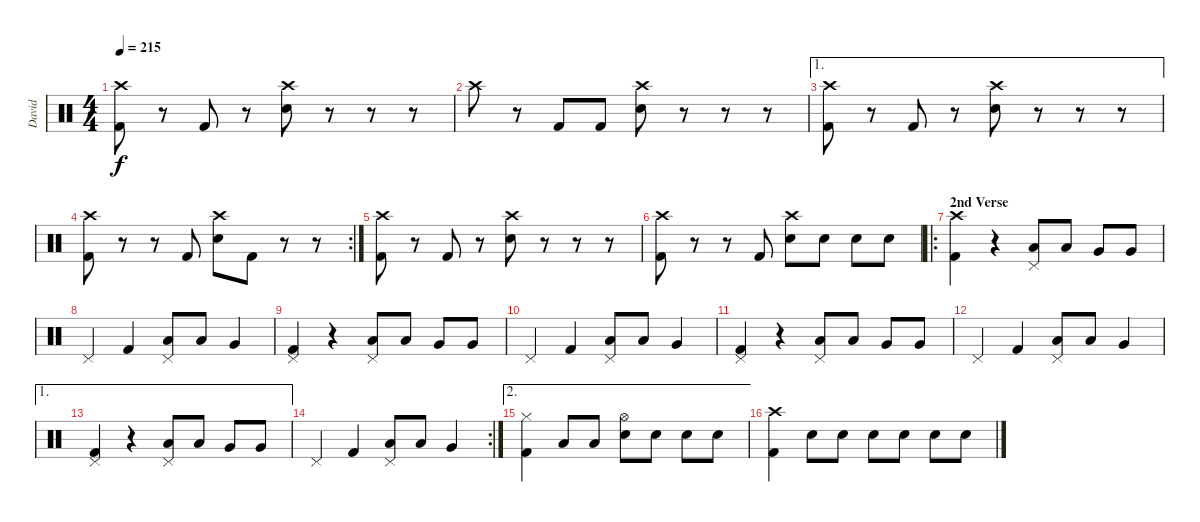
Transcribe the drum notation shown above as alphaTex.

\track ("David" "David") {instrument percussion}
\staff {score}
\articulation defaults
\ts (4 4)
\tempo 215
\clef neutral
\ks c
("Crash high (hit)" "Kick (hit) 2").8{dy f} r.8 "Kick (hit) 2".8 r.8 ("Crash high (hit)" "Electric Snare (hit)").8 r.8 r.8 r.8 |
"Crash high (hit)".8 r.8 "Kick (hit) 2".8 "Kick (hit) 2".8 ("Crash high (hit)" "Electric Snare (hit)").8 r.8 r.8 r.8 |
\ae 1
("Crash high (hit)" "Kick (hit) 2").8 r.8 "Kick (hit) 2".8 r.8 ("Crash high (hit)" "Electric Snare (hit)").8 r.8 r.8 r.8 |
\rc 2
("Crash high (hit)" "Kick (hit) 2").8 r.8 r.8 "Kick (hit) 2".8 ("Crash high (hit)" "Electric Snare (hit)").8 "Kick (hit) 2".8 r.8 r.8 |
("Crash high (hit)" "Kick (hit) 2").8 r.8 "Kick (hit) 2".8 r.8 ("Crash high (hit)" "Electric Snare (hit)").8 r.8 r.8 r.8 |
("Crash high (hit)" "Kick (hit) 2").8 r.8 r.8 "Kick (hit) 2".8 ("Crash high (hit)" "Electric Snare (hit)").8 "Electric Snare (hit)".8 "Electric Snare (hit)".8 "Electric Snare (hit)".8 |
\ro
\section ("" "2nd Verse")
("Crash high (hit)" "Kick (hit) 2").4 r.4 ("Pedal Hi-Hat (hit)" "Low Tom (hit)").8 "Low Tom (hit)".8 "Very Low Tom (hit)".8 "Very Low Tom (hit)".8 |
"Pedal Hi-Hat (hit)".4 "Kick (hit) 2".4 ("Pedal Hi-Hat (hit)" "Low Tom (hit)").8 "Low Tom (hit)".8 "Very Low Tom (hit)".4 |
("Pedal Hi-Hat (hit)" "Kick (hit) 2").4 r.4 ("Pedal Hi-Hat (hit)" "Low Tom (hit)").8 "Low Tom (hit)".8 "Very Low Tom (hit)".8 "Very Low Tom (hit)".8 |
"Pedal Hi-Hat (hit)".4 "Kick (hit) 2".4 ("Pedal Hi-Hat (hit)" "Low Tom (hit)").8 "Low Tom (hit)".8 "Very Low Tom (hit)".4 |
("Pedal Hi-Hat (hit)" "Kick (hit) 2").4 r.4 ("Pedal Hi-Hat (hit)" "Low Tom (hit)").8 "Low Tom (hit)".8 "Very Low Tom (hit)".8 "Very Low Tom (hit)".8 |
"Pedal Hi-Hat (hit)".4 "Kick (hit) 2".4 ("Pedal Hi-Hat (hit)" "Low Tom (hit)").8 "Low Tom (hit)".8 "Very Low Tom (hit)".4 |
\ae 1
("Pedal Hi-Hat (hit)" "Kick (hit) 2").4 r.4 ("Pedal Hi-Hat (hit)" "Low Tom (hit)").8 "Low Tom (hit)".8 "Very Low Tom (hit)".8 "Very Low Tom (hit)".8 |
\rc 2 "Pedal Hi-Hat (hit)".4 "Kick (hit) 2".4
("Pedal Hi-Hat (hit)" "Low Tom (hit)").8 "Low Tom (hit)".8 "Very Low Tom (hit)".4 |
\ae 2
("Hi-Hat (closed)" "Kick (hit) 2").4 "Low Tom (hit)".8 "Low Tom (hit)".8 ("Hi-Hat (open)" "Electric Snare (hit)").8 "Electric Snare (hit)".8 "Electric Snare (hit)".8 "Electric Snare (hit)".8 |
("Crash high (hit)" "Kick (hit) 2").4 "Electric Snare (hit)".8 "Electric Snare (hit)".8 "Electric Snare (hit)".8 "Electric Snare (hit)".8 "Electric Snare (hit)".8 "Electric Snare (hit)".8
